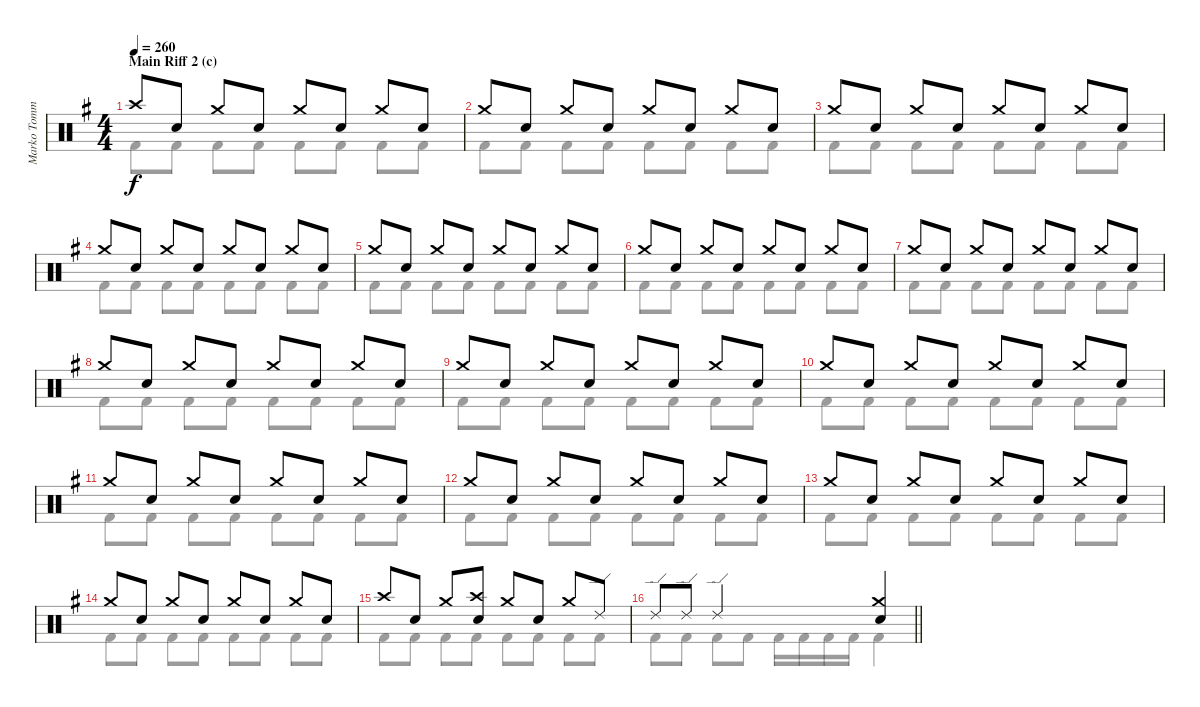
\track ("Marko Tommila (drums)" "Marko Tomm") {instrument percussion}
\staff {score}
\articulation defaults
\voice
\ts (4 4)
\section ("" "Main Riff 2 (c)")
\tempo 260
\clef neutral
\ks eminor "Crash high (hit)".8{dy f} "Electric Snare (hit)".8 "Crash medium (hit)".8 "Electric Snare (hit)".8 "Crash medium (hit)".8 "Electric Snare (hit)".8 "Crash medium (hit)".8 "Electric Snare (hit)".8
|
"Crash medium (hit)".8 "Electric Snare (hit)".8 "Crash medium (hit)".8 "Electric Snare (hit)".8 "Crash medium (hit)".8 "Electric Snare (hit)".8 "Crash medium (hit)".8 "Electric Snare (hit)".8 |
"Crash medium (hit)".8 "Electric Snare (hit)".8 "Crash medium (hit)".8 "Electric Snare (hit)".8 "Crash medium (hit)".8 "Electric Snare (hit)".8 "Crash medium (hit)".8 "Electric Snare (hit)".8 |
"Crash medium (hit)".8 "Electric Snare (hit)".8 "Crash medium (hit)".8 "Electric Snare (hit)".8 "Crash medium (hit)".8 "Electric Snare (hit)".8 "Crash medium (hit)".8 "Electric Snare (hit)".8 |
"Crash medium (hit)".8 "Electric Snare (hit)".8 "Crash medium (hit)".8 "Electric Snare (hit)".8 "Crash medium (hit)".8 "Electric Snare (hit)".8 "Crash medium (hit)".8 "Electric Snare (hit)".8 |
"Crash medium (hit)".8 "Electric Snare (hit)".8 "Crash medium (hit)".8 "Electric Snare (hit)".8 "Crash medium (hit)".8 "Electric Snare (hit)".8 "Crash medium (hit)".8 "Electric Snare (hit)".8 |
"Crash medium (hit)".8 "Electric Snare (hit)".8 "Crash medium (hit)".8 "Electric Snare (hit)".8 "Crash medium (hit)".8 "Electric Snare (hit)".8 "Crash medium (hit)".8 "Electric Snare (hit)".8 |
"Crash medium (hit)".8 "Electric Snare (hit)".8 "Crash medium (hit)".8 "Electric Snare (hit)".8 "Crash medium (hit)".8 "Electric Snare (hit)".8 "Crash medium (hit)".8 "Electric Snare (hit)".8 |
"Crash medium (hit)".8 "Electric Snare (hit)".8 "Crash medium (hit)".8 "Electric Snare (hit)".8 "Crash medium (hit)".8 "Electric Snare (hit)".8 "Crash medium (hit)".8 "Electric Snare (hit)".8 |
"Crash medium (hit)".8 "Electric Snare (hit)".8 "Crash medium (hit)".8 "Electric Snare (hit)".8 "Crash medium (hit)".8 "Electric Snare (hit)".8 "Crash medium (hit)".8 "Electric Snare (hit)".8 |
"Crash medium (hit)".8 "Electric Snare (hit)".8 "Crash medium (hit)".8 "Electric Snare (hit)".8 "Crash medium (hit)".8 "Electric Snare (hit)".8 "Crash medium (hit)".8 "Electric Snare (hit)".8 |
"Crash medium (hit)".8 "Electric Snare (hit)".8 "Crash medium (hit)".8 "Electric Snare (hit)".8 "Crash medium (hit)".8 "Electric Snare (hit)".8 "Crash medium (hit)".8 "Electric Snare (hit)".8 |
"Crash medium (hit)".8 "Electric Snare (hit)".8 "Crash medium (hit)".8 "Electric Snare (hit)".8 "Crash medium (hit)".8 "Electric Snare (hit)".8 "Crash medium (hit)".8 "Electric Snare (hit)".8 |
"Crash medium (hit)".8 "Electric Snare (hit)".8 "Crash medium (hit)".8 "Electric Snare (hit)".8 "Crash medium (hit)".8 "Electric Snare (hit)".8 "Crash medium (hit)".8 "Electric Snare (hit)".8 |
"Crash high (hit)".8 "Electric Snare (hit)".8 "Crash medium (hit)".8 ("Crash high (hit)" "Electric Snare (hit)").8 "Crash medium (hit)".8 "Electric Snare (hit)".8 "Crash medium (hit)".8 "Ride (edge) 2".8 |
\barLineRight lightlight "Ride (edge) 2".8 "Ride (edge) 2".8 "Ride (edge) 2".2
("Crash medium (hit)" "Electric Snare (hit)").4
\voice
\clef neutral
\ottava regular
\simile none
\ks eminor "Kick (hit) 2".8{dy f} "Kick (hit) 2".8 "Kick (hit) 2".8 "Kick (hit) 2".8 "Kick (hit) 2".8 "Kick (hit) 2".8 "Kick (hit) 2".8 "Kick (hit) 2".8
|
"Kick (hit) 2".8 "Kick (hit) 2".8 "Kick (hit) 2".8 "Kick (hit) 2".8 "Kick (hit) 2".8 "Kick (hit) 2".8 "Kick (hit) 2".8 "Kick (hit) 2".8 |
"Kick (hit) 2".8 "Kick (hit) 2".8 "Kick (hit) 2".8 "Kick (hit) 2".8 "Kick (hit) 2".8 "Kick (hit) 2".8 "Kick (hit) 2".8 "Kick (hit) 2".8 |
"Kick (hit) 2".8 "Kick (hit) 2".8 "Kick (hit) 2".8 "Kick (hit) 2".8 "Kick (hit) 2".8 "Kick (hit) 2".8 "Kick (hit) 2".8 "Kick (hit) 2".8 |
"Kick (hit) 2".8 "Kick (hit) 2".8 "Kick (hit) 2".8 "Kick (hit) 2".8 "Kick (hit) 2".8 "Kick (hit) 2".8 "Kick (hit) 2".8 "Kick (hit) 2".8 |
"Kick (hit) 2".8 "Kick (hit) 2".8 "Kick (hit) 2".8 "Kick (hit) 2".8 "Kick (hit) 2".8 "Kick (hit) 2".8 "Kick (hit) 2".8 "Kick (hit) 2".8 |
"Kick (hit) 2".8 "Kick (hit) 2".8 "Kick (hit) 2".8 "Kick (hit) 2".8 "Kick (hit) 2".8 "Kick (hit) 2".8 "Kick (hit) 2".8 "Kick (hit) 2".8 |
"Kick (hit) 2".8 "Kick (hit) 2".8 "Kick (hit) 2".8 "Kick (hit) 2".8 "Kick (hit) 2".8 "Kick (hit) 2".8 "Kick (hit) 2".8 "Kick (hit) 2".8 |
"Kick (hit) 2".8 "Kick (hit) 2".8 "Kick (hit) 2".8 "Kick (hit) 2".8 "Kick (hit) 2".8 "Kick (hit) 2".8 "Kick (hit) 2".8 "Kick (hit) 2".8 |
"Kick (hit) 2".8 "Kick (hit) 2".8 "Kick (hit) 2".8 "Kick (hit) 2".8 "Kick (hit) 2".8 "Kick (hit) 2".8 "Kick (hit) 2".8 "Kick (hit) 2".8 |
"Kick (hit) 2".8 "Kick (hit) 2".8 "Kick (hit) 2".8 "Kick (hit) 2".8 "Kick (hit) 2".8 "Kick (hit) 2".8 "Kick (hit) 2".8 "Kick (hit) 2".8 |
"Kick (hit) 2".8 "Kick (hit) 2".8 "Kick (hit) 2".8 "Kick (hit) 2".8 "Kick (hit) 2".8 "Kick (hit) 2".8 "Kick (hit) 2".8 "Kick (hit) 2".8 |
"Kick (hit) 2".8 "Kick (hit) 2".8 "Kick (hit) 2".8 "Kick (hit) 2".8 "Kick (hit) 2".8 "Kick (hit) 2".8 "Kick (hit) 2".8 "Kick (hit) 2".8 |
"Kick (hit) 2".8 "Kick (hit) 2".8 "Kick (hit) 2".8 "Kick (hit) 2".8 "Kick (hit) 2".8 "Kick (hit) 2".8 "Kick (hit) 2".8 "Kick (hit) 2".8 |
"Kick (hit) 2".8 "Kick (hit) 2".8 "Kick (hit) 2".8 "Kick (hit) 2".8 "Kick (hit) 2".8 "Kick (hit) 2".8 "Kick (hit) 2".8 "Kick (hit) 2".8 |
\barLineRight lightlight "Kick (hit) 2".8 "Kick (hit) 2".8 "Kick (hit) 2".8 "Kick (hit) 2".8 "Kick (hit) 2".16 "Kick (hit) 2".16 "Kick (hit) 2".16 "Kick (hit) 2".16 "Kick (hit) 2".4
